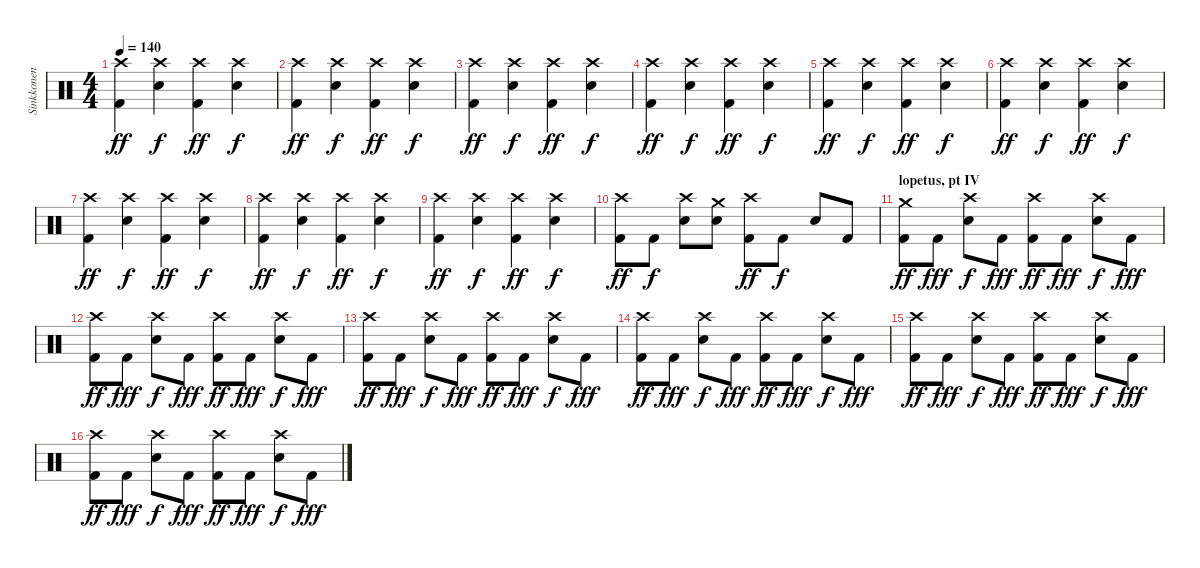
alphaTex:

\track ("Sinkkonen" "Sinkkonen") {instrument percussion}
\staff {score}
\articulation defaults
\ts (4 4)
\tempo 140
\clef neutral
\ks c
("Kick (hit) 2" "Crash high (hit)").4{dy ff} ("Crash high (hit)" "Snare (hit) 2").4{dy f} ("Kick (hit) 2" "Crash high (hit)").4{dy ff} ("Crash high (hit)" "Snare (hit) 2").4{dy f} |
("Kick (hit) 2" "Crash high (hit)").4{dy ff} ("Crash high (hit)" "Snare (hit) 2").4{dy f} ("Kick (hit) 2" "Crash high (hit)").4{dy ff} ("Crash high (hit)" "Snare (hit) 2").4{dy f} |
("Kick (hit) 2" "Crash high (hit)").4{dy ff} ("Crash high (hit)" "Snare (hit) 2").4{dy f} ("Kick (hit) 2" "Crash high (hit)").4{dy ff} ("Crash high (hit)" "Snare (hit) 2").4{dy f} |
("Kick (hit) 2" "Crash high (hit)").4{dy ff} ("Crash high (hit)" "Snare (hit) 2").4{dy f} ("Kick (hit) 2" "Crash high (hit)").4{dy ff} ("Crash high (hit)" "Snare (hit) 2").4{dy f} |
("Kick (hit) 2" "Crash high (hit)").4{dy ff} ("Crash high (hit)" "Snare (hit) 2").4{dy f} ("Kick (hit) 2" "Crash high (hit)").4{dy ff} ("Crash high (hit)" "Snare (hit) 2").4{dy f} |
("Kick (hit) 2" "Crash high (hit)").4{dy ff} ("Crash high (hit)" "Snare (hit) 2").4{dy f} ("Kick (hit) 2" "Crash high (hit)").4{dy ff} ("Crash high (hit)" "Snare (hit) 2").4{dy f} |
("Kick (hit) 2" "Crash high (hit)").4{dy ff} ("Crash high (hit)" "Snare (hit) 2").4{dy f} ("Kick (hit) 2" "Crash high (hit)").4{dy ff} ("Crash high (hit)" "Snare (hit) 2").4{dy f} |
("Kick (hit) 2" "Crash high (hit)").4{dy ff} ("Crash high (hit)" "Snare (hit) 2").4{dy f} ("Kick (hit) 2" "Crash high (hit)").4{dy ff} ("Crash high (hit)" "Snare (hit) 2").4{dy f} |
("Kick (hit) 2" "Crash high (hit)").4{dy ff} ("Crash high (hit)" "Snare (hit) 2").4{dy f} ("Kick (hit) 2" "Crash high (hit)").4{dy ff} ("Crash high (hit)" "Snare (hit) 2").4{dy f} |
("Kick (hit) 2" "Crash high (hit)").8{dy ff} "Kick (hit) 2".8{dy f} ("Crash high (hit)" "Snare (hit) 2").8 ("Crash medium (hit)" "Snare (hit) 2").8 ("Kick (hit) 2" "Crash high (hit)").8{dy ff} "Kick (hit) 2".8{dy f} "Snare (hit) 2".8 "Kick (hit) 2".8 |
\section ("" "lopetus, pt IV")
("Kick (hit) 2" "Crash medium (hit)").8{dy ff} "Kick (hit) 2".8{dy fff} ("Crash high (hit)" "Snare (hit) 2").8{dy f} "Kick (hit) 2".8{dy fff} ("Kick (hit) 2" "Crash high (hit)").8{dy ff} "Kick (hit) 2".8{dy fff} ("Crash high (hit)" "Snare (hit) 2").8{dy f} "Kick (hit) 2".8{dy fff} |
("Kick (hit) 2" "Crash high (hit)").8{dy ff} "Kick (hit) 2".8{dy fff} ("Crash high (hit)" "Snare (hit) 2").8{dy f} "Kick (hit) 2".8{dy fff} ("Kick (hit) 2" "Crash high (hit)").8{dy ff} "Kick (hit) 2".8{dy fff} ("Crash high (hit)" "Snare (hit) 2").8{dy f} "Kick (hit) 2".8{dy fff} |
("Kick (hit) 2" "Crash high (hit)").8{dy ff} "Kick (hit) 2".8{dy fff} ("Crash high (hit)" "Snare (hit) 2").8{dy f} "Kick (hit) 2".8{dy fff} ("Kick (hit) 2" "Crash high (hit)").8{dy ff} "Kick (hit) 2".8{dy fff} ("Crash high (hit)" "Snare (hit) 2").8{dy f} "Kick (hit) 2".8{dy fff} |
("Kick (hit) 2" "Crash high (hit)").8{dy ff} "Kick (hit) 2".8{dy fff} ("Crash high (hit)" "Snare (hit) 2").8{dy f} "Kick (hit) 2".8{dy fff} ("Kick (hit) 2" "Crash high (hit)").8{dy ff} "Kick (hit) 2".8{dy fff} ("Crash high (hit)" "Snare (hit) 2").8{dy f} "Kick (hit) 2".8{dy fff} |
("Kick (hit) 2" "Crash high (hit)").8{dy ff volume 10} "Kick (hit) 2".8{dy fff} ("Crash high (hit)" "Snare (hit) 2").8{dy f} "Kick (hit) 2".8{dy fff} ("Kick (hit) 2" "Crash high (hit)").8{dy ff} "Kick (hit) 2".8{dy fff} ("Crash high (hit)" "Snare (hit) 2").8{dy f} "Kick (hit) 2".8{dy fff} |
("Kick (hit) 2" "Crash high (hit)").8{dy ff} "Kick (hit) 2".8{dy fff} ("Crash high (hit)" "Snare (hit) 2").8{dy f} "Kick (hit) 2".8{dy fff} ("Kick (hit) 2" "Crash high (hit)").8{dy ff} "Kick (hit) 2".8{dy fff} ("Crash high (hit)" "Snare (hit) 2").8{dy f} "Kick (hit) 2".8{dy fff}
